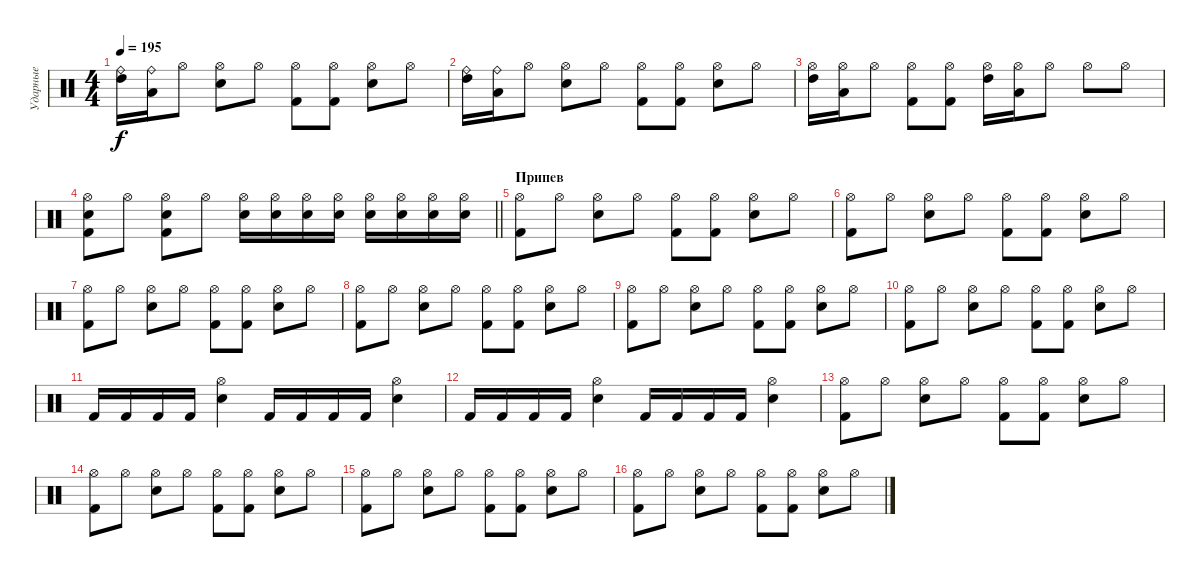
\track ("Ударные" "Ударные") {instrument percussion}
\staff {score}
\articulation defaults
\ts (4 4)
\tempo 195
\clef neutral
\ks c
("Ride (bell)" "High Tom (hit)").16{dy f} ("Ride (bell)" "Low Tom (hit)").16 "Hi-Hat (open)".8 ("Hi-Hat (open)" "Snare (hit) 2").8 "Hi-Hat (open)".8 ("Hi-Hat (open)" "Kick (hit) 2").8 ("Hi-Hat (open)" "Kick (hit) 2").8 ("Hi-Hat (open)" "Snare (hit) 2").8 "Hi-Hat (open)".8 |
("Ride (bell)" "High Tom (hit)").16 ("Ride (bell)" "Low Tom (hit)").16 "Hi-Hat (open)".8 ("Hi-Hat (open)" "Snare (hit) 2").8 "Hi-Hat (open)".8 ("Hi-Hat (open)" "Kick (hit) 2").8 ("Hi-Hat (open)" "Kick (hit) 2").8 ("Hi-Hat (open)" "Snare (hit) 2").8 "Hi-Hat (open)".8 |
("Hi-Hat (open)" "High Tom (hit)").16 ("Hi-Hat (open)" "Low Tom (hit)").16 "Hi-Hat (open)".8 ("Hi-Hat (open)" "Kick (hit) 2").8 ("Hi-Hat (open)" "Kick (hit) 2").8 ("Hi-Hat (open)" "High Tom (hit)").16 ("Hi-Hat (open)" "Low Tom (hit)").16 "Hi-Hat (open)".8 "Hi-Hat (open)".8 "Hi-Hat (open)".8 |
\barLineRight lightlight
("Hi-Hat (open)" "Kick (hit) 2" "Snare (hit) 2").8 "Hi-Hat (open)".8 ("Hi-Hat (open)" "Kick (hit) 2" "Snare (hit) 2").8 "Hi-Hat (open)".8 ("Snare (hit) 2" "Hi-Hat (open)").16 ("Snare (hit) 2" "Hi-Hat (open)").16 ("Snare (hit) 2" "Hi-Hat (open)").16 ("Snare (hit) 2" "Hi-Hat (open)").16 ("Snare (hit) 2" "Hi-Hat (open)").16 ("Snare (hit) 2" "Hi-Hat (open)").16 ("Snare (hit) 2" "Hi-Hat (open)").16 ("Snare (hit) 2" "Hi-Hat (open)").16 |
\section ("" "Припев")
("Hi-Hat (open)" "Kick (hit) 2").8 "Hi-Hat (open)".8 ("Hi-Hat (open)" "Snare (hit) 2").8 "Hi-Hat (open)".8 ("Hi-Hat (open)" "Kick (hit) 2").8 ("Hi-Hat (open)" "Kick (hit) 2").8 ("Hi-Hat (open)" "Snare (hit) 2").8 "Hi-Hat (open)".8 |
("Hi-Hat (open)" "Kick (hit) 2").8 "Hi-Hat (open)".8 ("Hi-Hat (open)" "Snare (hit) 2").8 "Hi-Hat (open)".8 ("Hi-Hat (open)" "Kick (hit) 2").8 ("Hi-Hat (open)" "Kick (hit) 2").8 ("Hi-Hat (open)" "Snare (hit) 2").8 "Hi-Hat (open)".8 |
("Hi-Hat (open)" "Kick (hit) 2").8 "Hi-Hat (open)".8 ("Hi-Hat (open)" "Snare (hit) 2").8 "Hi-Hat (open)".8 ("Hi-Hat (open)" "Kick (hit) 2").8 ("Hi-Hat (open)" "Kick (hit) 2").8 ("Hi-Hat (open)" "Snare (hit) 2").8 "Hi-Hat (open)".8 |
("Hi-Hat (open)" "Kick (hit) 2").8 "Hi-Hat (open)".8 ("Hi-Hat (open)" "Snare (hit) 2").8 "Hi-Hat (open)".8 ("Hi-Hat (open)" "Kick (hit) 2").8 ("Hi-Hat (open)" "Kick (hit) 2").8 ("Hi-Hat (open)" "Snare (hit) 2").8 "Hi-Hat (open)".8 |
("Hi-Hat (open)" "Kick (hit) 2").8 "Hi-Hat (open)".8 ("Hi-Hat (open)" "Snare (hit) 2").8 "Hi-Hat (open)".8 ("Hi-Hat (open)" "Kick (hit) 2").8 ("Hi-Hat (open)" "Kick (hit) 2").8 ("Hi-Hat (open)" "Snare (hit) 2").8 "Hi-Hat (open)".8 |
("Hi-Hat (open)" "Kick (hit) 2").8 "Hi-Hat (open)".8 ("Hi-Hat (open)" "Snare (hit) 2").8 "Hi-Hat (open)".8 ("Hi-Hat (open)" "Kick (hit) 2").8 ("Hi-Hat (open)" "Kick (hit) 2").8 ("Hi-Hat (open)" "Snare (hit) 2").8 "Hi-Hat (open)".8 |
"Kick (hit) 2".16 "Kick (hit) 2".16 "Kick (hit) 2".16 "Kick (hit) 2".16 ("Snare (hit) 2" "Hi-Hat (open)").4 "Kick (hit) 2".16 "Kick (hit) 2".16 "Kick (hit) 2".16 "Kick (hit) 2".16 ("Snare (hit) 2" "Hi-Hat (open)").4 |
"Kick (hit) 2".16 "Kick (hit) 2".16 "Kick (hit) 2".16 "Kick (hit) 2".16 ("Snare (hit) 2" "Hi-Hat (open)").4 "Kick (hit) 2".16 "Kick (hit) 2".16 "Kick (hit) 2".16 "Kick (hit) 2".16 ("Snare (hit) 2" "Hi-Hat (open)").4 |
("Hi-Hat (open)" "Kick (hit) 2").8 "Hi-Hat (open)".8 ("Hi-Hat (open)" "Snare (hit) 2").8 "Hi-Hat (open)".8 ("Hi-Hat (open)" "Kick (hit) 2").8 ("Hi-Hat (open)" "Kick (hit) 2").8 ("Hi-Hat (open)" "Snare (hit) 2").8 "Hi-Hat (open)".8 |
("Hi-Hat (open)" "Kick (hit) 2").8 "Hi-Hat (open)".8 ("Hi-Hat (open)" "Snare (hit) 2").8 "Hi-Hat (open)".8 ("Hi-Hat (open)" "Kick (hit) 2").8 ("Hi-Hat (open)" "Kick (hit) 2").8 ("Hi-Hat (open)" "Snare (hit) 2").8 "Hi-Hat (open)".8 |
("Hi-Hat (open)" "Kick (hit) 2").8 "Hi-Hat (open)".8 ("Hi-Hat (open)" "Snare (hit) 2").8 "Hi-Hat (open)".8 ("Hi-Hat (open)" "Kick (hit) 2").8 ("Hi-Hat (open)" "Kick (hit) 2").8 ("Hi-Hat (open)" "Snare (hit) 2").8 "Hi-Hat (open)".8 |
("Hi-Hat (open)" "Kick (hit) 2").8 "Hi-Hat (open)".8 ("Hi-Hat (open)" "Snare (hit) 2").8 "Hi-Hat (open)".8 ("Hi-Hat (open)" "Kick (hit) 2").8 ("Hi-Hat (open)" "Kick (hit) 2").8 ("Hi-Hat (open)" "Snare (hit) 2").8 "Hi-Hat (open)".8
